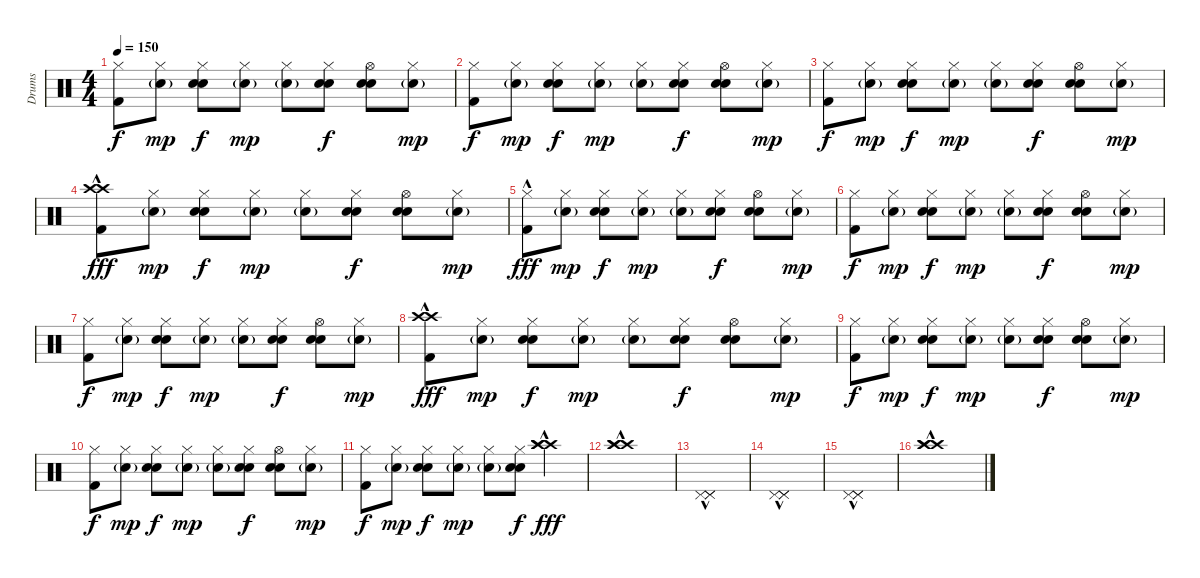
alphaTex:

\track ("Drums" "Drums") {instrument percussion}
\staff {score}
\articulation defaults
\ts (4 4)
\tempo 150
\clef neutral
\ks c
("Hi-Hat (closed)" "Kick (hit) 2").8{dy f} ("Hi-Hat (closed)" "Electric Snare (hit)"{g}).8{dy mp} ("Hi-Hat (closed)" "Electric Snare (hit)" "Hand Clap (hit)").8{dy f} ("Hi-Hat (closed)" "Electric Snare (hit)"{g}).8{dy mp} ("Hi-Hat (closed)" "Electric Snare (hit)"{g}).8 ("Hi-Hat (closed)" "Electric Snare (hit)" "Hand Clap (hit)").8{dy f} ("Hi-Hat (open)" "Electric Snare (hit)" "Hand Clap (hit)").8 ("Hi-Hat (closed)" "Electric Snare (hit)"{g}).8{dy mp} |
("Hi-Hat (closed)" "Kick (hit) 2").8{dy f} ("Hi-Hat (closed)" "Electric Snare (hit)"{g}).8{dy mp} ("Hi-Hat (closed)" "Electric Snare (hit)" "Hand Clap (hit)").8{dy f} ("Hi-Hat (closed)" "Electric Snare (hit)"{g}).8{dy mp} ("Hi-Hat (closed)" "Electric Snare (hit)"{g}).8 ("Hi-Hat (closed)" "Electric Snare (hit)" "Hand Clap (hit)").8{dy f} ("Hi-Hat (open)" "Electric Snare (hit)" "Hand Clap (hit)").8 ("Hi-Hat (closed)" "Electric Snare (hit)"{g}).8{dy mp} |
("Hi-Hat (closed)" "Kick (hit) 2").8{dy f} ("Hi-Hat (closed)" "Electric Snare (hit)"{g}).8{dy mp} ("Hi-Hat (closed)" "Electric Snare (hit)" "Hand Clap (hit)").8{dy f} ("Hi-Hat (closed)" "Electric Snare (hit)"{g}).8{dy mp} ("Hi-Hat (closed)" "Electric Snare (hit)"{g}).8 ("Hi-Hat (closed)" "Electric Snare (hit)" "Hand Clap (hit)").8{dy f} ("Hi-Hat (open)" "Electric Snare (hit)" "Hand Clap (hit)").8 ("Hi-Hat (closed)" "Electric Snare (hit)"{g}).8{dy mp} |
("Crash high (hit)"{hac} "Crash high (hit)"{hac} "Kick (hit) 2").8{dy fff} ("Hi-Hat (closed)" "Electric Snare (hit)"{g}).8{dy mp} ("Hi-Hat (closed)" "Electric Snare (hit)" "Hand Clap (hit)").8{dy f} ("Hi-Hat (closed)" "Electric Snare (hit)"{g}).8{dy mp} ("Hi-Hat (closed)" "Electric Snare (hit)"{g}).8 ("Hi-Hat (closed)" "Electric Snare (hit)" "Hand Clap (hit)").8{dy f} ("Hi-Hat (open)" "Electric Snare (hit)" "Hand Clap (hit)").8 ("Hi-Hat (closed)" "Electric Snare (hit)"{g}).8{dy mp} |
("Hi-Hat (closed)"{hac} "Kick (hit) 2").8{dy fff} ("Hi-Hat (closed)" "Electric Snare (hit)"{g}).8{dy mp} ("Hi-Hat (closed)" "Electric Snare (hit)" "Hand Clap (hit)").8{dy f} ("Hi-Hat (closed)" "Electric Snare (hit)"{g}).8{dy mp} ("Hi-Hat (closed)" "Electric Snare (hit)"{g}).8 ("Hi-Hat (closed)" "Electric Snare (hit)" "Hand Clap (hit)").8{dy f} ("Hi-Hat (open)" "Electric Snare (hit)" "Hand Clap (hit)").8 ("Hi-Hat (closed)" "Electric Snare (hit)"{g}).8{dy mp} |
("Hi-Hat (closed)" "Kick (hit) 2").8{dy f} ("Hi-Hat (closed)" "Electric Snare (hit)"{g}).8{dy mp} ("Hi-Hat (closed)" "Electric Snare (hit)" "Hand Clap (hit)").8{dy f} ("Hi-Hat (closed)" "Electric Snare (hit)"{g}).8{dy mp} ("Hi-Hat (closed)" "Electric Snare (hit)"{g}).8 ("Hi-Hat (closed)" "Electric Snare (hit)" "Hand Clap (hit)").8{dy f} ("Hi-Hat (open)" "Electric Snare (hit)" "Hand Clap (hit)").8 ("Hi-Hat (closed)" "Electric Snare (hit)"{g}).8{dy mp} |
("Hi-Hat (closed)" "Kick (hit) 2").8{dy f} ("Hi-Hat (closed)" "Electric Snare (hit)"{g}).8{dy mp} ("Hi-Hat (closed)" "Electric Snare (hit)" "Hand Clap (hit)").8{dy f} ("Hi-Hat (closed)" "Electric Snare (hit)"{g}).8{dy mp} ("Hi-Hat (closed)" "Electric Snare (hit)"{g}).8 ("Hi-Hat (closed)" "Electric Snare (hit)" "Hand Clap (hit)").8{dy f} ("Hi-Hat (open)" "Electric Snare (hit)" "Hand Clap (hit)").8 ("Hi-Hat (closed)" "Electric Snare (hit)"{g}).8{dy mp} |
("Crash high (hit)"{hac} "Crash high (hit)"{hac} "Kick (hit) 2").8{dy fff} ("Hi-Hat (closed)" "Electric Snare (hit)"{g}).8{dy mp} ("Hi-Hat (closed)" "Electric Snare (hit)" "Hand Clap (hit)").8{dy f} ("Hi-Hat (closed)" "Electric Snare (hit)"{g}).8{dy mp} ("Hi-Hat (closed)" "Electric Snare (hit)"{g}).8 ("Hi-Hat (closed)" "Electric Snare (hit)" "Hand Clap (hit)").8{dy f} ("Hi-Hat (open)" "Electric Snare (hit)" "Hand Clap (hit)").8 ("Hi-Hat (closed)" "Electric Snare (hit)"{g}).8{dy mp} |
("Hi-Hat (closed)" "Kick (hit) 2").8{dy f} ("Hi-Hat (closed)" "Electric Snare (hit)"{g}).8{dy mp} ("Hi-Hat (closed)" "Electric Snare (hit)" "Hand Clap (hit)").8{dy f} ("Hi-Hat (closed)" "Electric Snare (hit)"{g}).8{dy mp} ("Hi-Hat (closed)" "Electric Snare (hit)"{g}).8 ("Hi-Hat (closed)" "Electric Snare (hit)" "Hand Clap (hit)").8{dy f} ("Hi-Hat (open)" "Electric Snare (hit)" "Hand Clap (hit)").8 ("Hi-Hat (closed)" "Electric Snare (hit)"{g}).8{dy mp} |
("Hi-Hat (closed)" "Kick (hit) 2").8{dy f} ("Hi-Hat (closed)" "Electric Snare (hit)"{g}).8{dy mp} ("Hi-Hat (closed)" "Electric Snare (hit)" "Hand Clap (hit)").8{dy f} ("Hi-Hat (closed)" "Electric Snare (hit)"{g}).8{dy mp} ("Hi-Hat (closed)" "Electric Snare (hit)"{g}).8 ("Hi-Hat (closed)" "Electric Snare (hit)" "Hand Clap (hit)").8{dy f} ("Hi-Hat (open)" "Electric Snare (hit)" "Hand Clap (hit)").8 ("Hi-Hat (closed)" "Electric Snare (hit)"{g}).8{dy mp} |
("Hi-Hat (closed)" "Kick (hit) 2").8{dy f} ("Hi-Hat (closed)" "Electric Snare (hit)"{g}).8{dy mp} ("Hi-Hat (closed)" "Electric Snare (hit)" "Hand Clap (hit)").8{dy f} ("Hi-Hat (closed)" "Electric Snare (hit)"{g}).8{dy mp} ("Hi-Hat (closed)" "Electric Snare (hit)"{g}).8 ("Hi-Hat (closed)" "Electric Snare (hit)" "Hand Clap (hit)").8{dy f} ("Crash high (hit)"{hac} "Crash high (hit)"{hac} "Crash high (hit)"{hac}).4{dy fff} |
("Crash high (hit)"{hac} "Crash high (hit)"{hac} "Crash high (hit)"{hac}).1 |
("Pedal Hi-Hat (hit)"{hac} "Pedal Hi-Hat (hit)"{hac} "Pedal Hi-Hat (hit)"{hac}).1 |
("Pedal Hi-Hat (hit)"{hac} "Pedal Hi-Hat (hit)"{hac} "Pedal Hi-Hat (hit)"{hac}).1 |
("Pedal Hi-Hat (hit)"{hac} "Pedal Hi-Hat (hit)"{hac} "Pedal Hi-Hat (hit)"{hac}).1 |
("Crash high (hit)"{hac} "Crash high (hit)"{hac} "Crash high (hit)"{hac}).1
